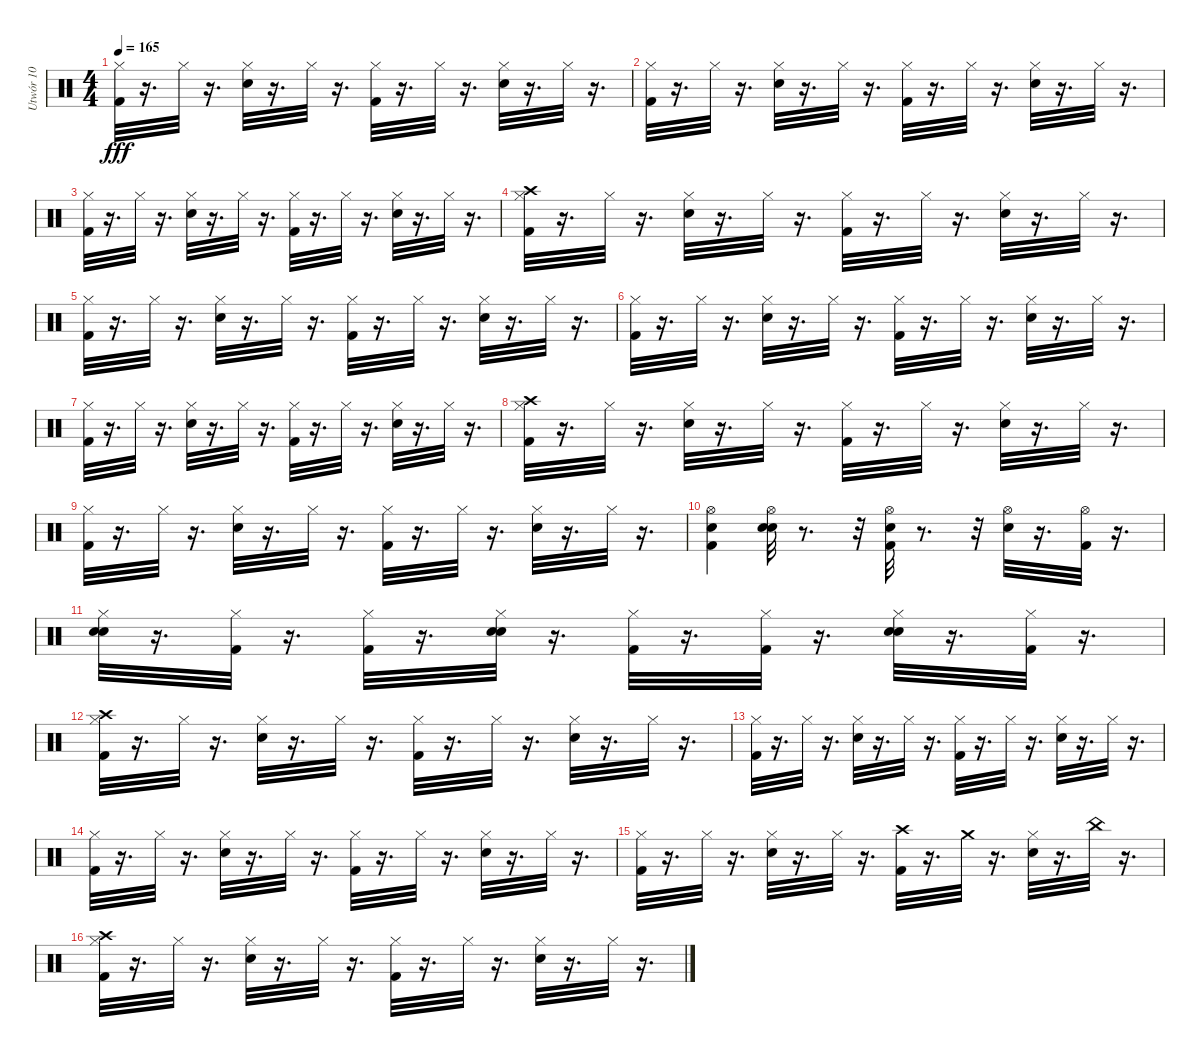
\track ("Utwór 10" "Utwór 10") {instrument percussion}
\staff {score}
\articulation defaults
\ts (4 4)
\tempo 165
\clef neutral
\ks c
("Hi-Hat (closed)" "Kick (hit) 2").32{dy fff} r.16{d} "Hi-Hat (closed)".32 r.16{d} ("Hi-Hat (closed)" "Electric Snare (hit)").32 r.16{d} "Hi-Hat (closed)".32 r.16{d} ("Hi-Hat (closed)" "Kick (hit) 2").32 r.16{d} "Hi-Hat (closed)".32 r.16{d} ("Hi-Hat (closed)" "Electric Snare (hit)").32 r.16{d} "Hi-Hat (closed)".32 r.16{d} |
("Hi-Hat (closed)" "Kick (hit) 2").32 r.16{d} "Hi-Hat (closed)".32 r.16{d} ("Hi-Hat (closed)" "Electric Snare (hit)").32 r.16{d} "Hi-Hat (closed)".32 r.16{d} ("Hi-Hat (closed)" "Kick (hit) 2").32 r.16{d} "Hi-Hat (closed)".32 r.16{d} ("Hi-Hat (closed)" "Electric Snare (hit)").32 r.16{d} "Hi-Hat (closed)".32 r.16{d} |
("Hi-Hat (closed)" "Kick (hit) 2").32 r.16{d} "Hi-Hat (closed)".32 r.16{d} ("Hi-Hat (closed)" "Electric Snare (hit)").32 r.16{d} "Hi-Hat (closed)".32 r.16{d} ("Hi-Hat (closed)" "Kick (hit) 2").32 r.16{d} "Hi-Hat (closed)".32 r.16{d} ("Hi-Hat (closed)" "Electric Snare (hit)").32 r.16{d} "Hi-Hat (closed)".32 r.16{d} |
("Crash high (hit)" "Hi-Hat (closed)" "Kick (hit) 2").32 r.16{d} "Hi-Hat (closed)".32 r.16{d} ("Hi-Hat (closed)" "Electric Snare (hit)").32 r.16{d} "Hi-Hat (closed)".32 r.16{d} ("Hi-Hat (closed)" "Kick (hit) 2").32 r.16{d} "Hi-Hat (closed)".32 r.16{d} ("Hi-Hat (closed)" "Electric Snare (hit)").32 r.16{d} "Hi-Hat (closed)".32 r.16{d} |
("Hi-Hat (closed)" "Kick (hit) 2").32 r.16{d} "Hi-Hat (closed)".32 r.16{d} ("Hi-Hat (closed)" "Electric Snare (hit)").32 r.16{d} "Hi-Hat (closed)".32 r.16{d} ("Hi-Hat (closed)" "Kick (hit) 2").32 r.16{d} "Hi-Hat (closed)".32 r.16{d} ("Hi-Hat (closed)" "Electric Snare (hit)").32 r.16{d} "Hi-Hat (closed)".32 r.16{d} |
("Hi-Hat (closed)" "Kick (hit) 2").32 r.16{d} "Hi-Hat (closed)".32 r.16{d} ("Hi-Hat (closed)" "Electric Snare (hit)").32 r.16{d} "Hi-Hat (closed)".32 r.16{d} ("Hi-Hat (closed)" "Kick (hit) 2").32 r.16{d} "Hi-Hat (closed)".32 r.16{d} ("Hi-Hat (closed)" "Electric Snare (hit)").32 r.16{d} "Hi-Hat (closed)".32 r.16{d} |
("Hi-Hat (closed)" "Kick (hit) 2").32 r.16{d} "Hi-Hat (closed)".32 r.16{d} ("Hi-Hat (closed)" "Electric Snare (hit)").32 r.16{d} "Hi-Hat (closed)".32 r.16{d} ("Hi-Hat (closed)" "Kick (hit) 2").32 r.16{d} "Hi-Hat (closed)".32 r.16{d} ("Hi-Hat (closed)" "Electric Snare (hit)").32 r.16{d} "Hi-Hat (closed)".32 r.16{d} |
("Crash high (hit)" "Hi-Hat (closed)" "Kick (hit) 2").32 r.16{d} "Hi-Hat (closed)".32 r.16{d} ("Hi-Hat (closed)" "Electric Snare (hit)").32 r.16{d} "Hi-Hat (closed)".32 r.16{d} ("Hi-Hat (closed)" "Kick (hit) 2").32 r.16{d} "Hi-Hat (closed)".32 r.16{d} ("Hi-Hat (closed)" "Electric Snare (hit)").32 r.16{d} "Hi-Hat (closed)".32 r.16{d} |
("Hi-Hat (closed)" "Kick (hit) 2").32 r.16{d} "Hi-Hat (closed)".32 r.16{d} ("Hi-Hat (closed)" "Electric Snare (hit)").32 r.16{d} "Hi-Hat (closed)".32 r.16{d} ("Hi-Hat (closed)" "Kick (hit) 2").32 r.16{d} "Hi-Hat (closed)".32 r.16{d} ("Hi-Hat (closed)" "Electric Snare (hit)").32 r.16{d} "Hi-Hat (closed)".32 r.16{d} |
("Electric Snare (hit)" "Hi-Hat (open)" "Kick (hit) 2").4 ("Electric Snare (hit)" "Hi-Hat (open)" "Electric Snare (hit)").32 r.8{d} r.32 ("Electric Snare (hit)" "Hi-Hat (open)" "Kick (hit) 2").32 r.8{d} r.32 ("Hi-Hat (open)" "Electric Snare (hit)").32 r.16{d} ("Kick (hit) 2" "Hi-Hat (open)").32 r.16{d} |
("Electric Snare (hit)" "Hi-Hat (closed)" "Electric Snare (hit)").32 r.16{d} ("Kick (hit) 2" "Hi-Hat (closed)").32 r.16{d} ("Hi-Hat (closed)" "Kick (hit) 2").32 r.16{d} ("Electric Snare (hit)" "Electric Snare (hit)" "Hi-Hat (closed)").32 r.16{d} ("Hi-Hat (closed)" "Kick (hit) 2").32 r.16{d} ("Hi-Hat (closed)" "Kick (hit) 2").32 r.16{d} ("Electric Snare (hit)" "Hi-Hat (closed)" "Electric Snare (hit)").32 r.16{d} ("Kick (hit) 2" "Hi-Hat (closed)").32 r.16{d} |
("Crash high (hit)" "Hi-Hat (closed)" "Kick (hit) 2").32 r.16{d} "Hi-Hat (closed)".32 r.16{d} ("Hi-Hat (closed)" "Electric Snare (hit)").32 r.16{d} "Hi-Hat (closed)".32 r.16{d} ("Hi-Hat (closed)" "Kick (hit) 2").32 r.16{d} "Hi-Hat (closed)".32 r.16{d} ("Hi-Hat (closed)" "Electric Snare (hit)").32 r.16{d} "Hi-Hat (closed)".32 r.16{d} |
("Hi-Hat (closed)" "Kick (hit) 2").32 r.16{d} "Hi-Hat (closed)".32 r.16{d} ("Hi-Hat (closed)" "Electric Snare (hit)").32 r.16{d} "Hi-Hat (closed)".32 r.16{d} ("Hi-Hat (closed)" "Kick (hit) 2").32 r.16{d} "Hi-Hat (closed)".32 r.16{d} ("Hi-Hat (closed)" "Electric Snare (hit)").32 r.16{d} "Hi-Hat (closed)".32 r.16{d} |
("Hi-Hat (closed)" "Kick (hit) 2").32 r.16{d} "Hi-Hat (closed)".32 r.16{d} ("Hi-Hat (closed)" "Electric Snare (hit)").32 r.16{d} "Hi-Hat (closed)".32 r.16{d} ("Hi-Hat (closed)" "Kick (hit) 2").32 r.16{d} "Hi-Hat (closed)".32 r.16{d} ("Hi-Hat (closed)" "Electric Snare (hit)").32 r.16{d} "Hi-Hat (closed)".32 r.16{d} |
("Hi-Hat (closed)" "Kick (hit) 2").32 r.16{d} "Hi-Hat (closed)".32 r.16{d} ("Hi-Hat (closed)" "Electric Snare (hit)").32 r.16{d} "Hi-Hat (closed)".32 r.16{d} ("Crash high (hit)" "Kick (hit) 2").32 r.16{d} "Crash medium (hit)".32 r.16{d} ("Hi-Hat (closed)" "Electric Snare (hit)").32 r.16{d} "China (hit)".32 r.16{d} |
("Crash high (hit)" "Hi-Hat (closed)" "Kick (hit) 2").32 r.16{d} "Hi-Hat (closed)".32 r.16{d} ("Hi-Hat (closed)" "Electric Snare (hit)").32 r.16{d} "Hi-Hat (closed)".32 r.16{d} ("Hi-Hat (closed)" "Kick (hit) 2").32 r.16{d} "Hi-Hat (closed)".32 r.16{d} ("Hi-Hat (closed)" "Electric Snare (hit)").32 r.16{d} "Hi-Hat (closed)".32 r.16{d}
